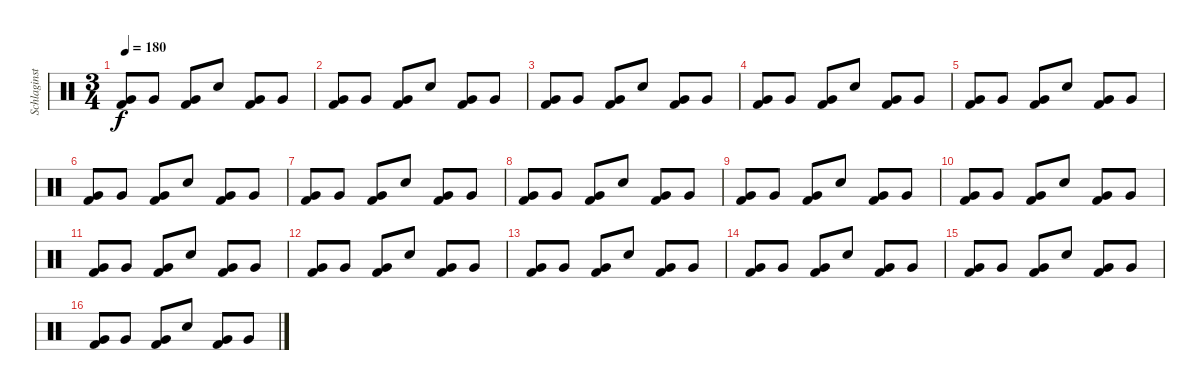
\track ("Schlaginstrumente - Auswahl" "Schlaginst") {instrument percussion}
\staff {score}
\articulation defaults
\ts (3 4)
\tempo 180
\clef neutral
\ks c
("Very Low Tom (hit)" "Kick (hit) 2").8{dy f} "Very Low Tom (hit)".8 ("Very Low Tom (hit)" "Kick (hit) 2").8 "Snare (hit) 2".8 ("Very Low Tom (hit)" "Kick (hit) 2").8 "Very Low Tom (hit)".8 |
("Very Low Tom (hit)" "Kick (hit) 2").8 "Very Low Tom (hit)".8 ("Very Low Tom (hit)" "Kick (hit) 2").8 "Snare (hit) 2".8 ("Very Low Tom (hit)" "Kick (hit) 2").8 "Very Low Tom (hit)".8 |
("Very Low Tom (hit)" "Kick (hit) 2").8 "Very Low Tom (hit)".8 ("Very Low Tom (hit)" "Kick (hit) 2").8 "Snare (hit) 2".8 ("Very Low Tom (hit)" "Kick (hit) 2").8 "Very Low Tom (hit)".8 |
("Very Low Tom (hit)" "Kick (hit) 2").8 "Very Low Tom (hit)".8 ("Very Low Tom (hit)" "Kick (hit) 2").8 "Snare (hit) 2".8 ("Very Low Tom (hit)" "Kick (hit) 2").8 "Very Low Tom (hit)".8 |
("Very Low Tom (hit)" "Kick (hit) 2").8 "Very Low Tom (hit)".8 ("Very Low Tom (hit)" "Kick (hit) 2").8 "Snare (hit) 2".8 ("Very Low Tom (hit)" "Kick (hit) 2").8 "Very Low Tom (hit)".8 |
("Very Low Tom (hit)" "Kick (hit) 2").8 "Very Low Tom (hit)".8 ("Very Low Tom (hit)" "Kick (hit) 2").8 "Snare (hit) 2".8 ("Very Low Tom (hit)" "Kick (hit) 2").8 "Very Low Tom (hit)".8 |
("Very Low Tom (hit)" "Kick (hit) 2").8 "Very Low Tom (hit)".8 ("Very Low Tom (hit)" "Kick (hit) 2").8 "Snare (hit) 2".8 ("Very Low Tom (hit)" "Kick (hit) 2").8 "Very Low Tom (hit)".8 |
("Very Low Tom (hit)" "Kick (hit) 2").8 "Very Low Tom (hit)".8 ("Very Low Tom (hit)" "Kick (hit) 2").8 "Snare (hit) 2".8 ("Very Low Tom (hit)" "Kick (hit) 2").8 "Very Low Tom (hit)".8 |
("Very Low Tom (hit)" "Kick (hit) 2").8 "Very Low Tom (hit)".8 ("Very Low Tom (hit)" "Kick (hit) 2").8 "Snare (hit) 2".8 ("Very Low Tom (hit)" "Kick (hit) 2").8 "Very Low Tom (hit)".8 |
("Very Low Tom (hit)" "Kick (hit) 2").8 "Very Low Tom (hit)".8 ("Very Low Tom (hit)" "Kick (hit) 2").8 "Snare (hit) 2".8 ("Very Low Tom (hit)" "Kick (hit) 2").8 "Very Low Tom (hit)".8 |
("Very Low Tom (hit)" "Kick (hit) 2").8 "Very Low Tom (hit)".8 ("Very Low Tom (hit)" "Kick (hit) 2").8 "Snare (hit) 2".8 ("Very Low Tom (hit)" "Kick (hit) 2").8 "Very Low Tom (hit)".8 |
("Very Low Tom (hit)" "Kick (hit) 2").8 "Very Low Tom (hit)".8 ("Very Low Tom (hit)" "Kick (hit) 2").8 "Snare (hit) 2".8 ("Very Low Tom (hit)" "Kick (hit) 2").8 "Very Low Tom (hit)".8 |
("Very Low Tom (hit)" "Kick (hit) 2").8 "Very Low Tom (hit)".8 ("Very Low Tom (hit)" "Kick (hit) 2").8 "Snare (hit) 2".8 ("Very Low Tom (hit)" "Kick (hit) 2").8 "Very Low Tom (hit)".8 |
("Very Low Tom (hit)" "Kick (hit) 2").8 "Very Low Tom (hit)".8 ("Very Low Tom (hit)" "Kick (hit) 2").8 "Snare (hit) 2".8 ("Very Low Tom (hit)" "Kick (hit) 2").8 "Very Low Tom (hit)".8 |
("Very Low Tom (hit)" "Kick (hit) 2").8 "Very Low Tom (hit)".8 ("Very Low Tom (hit)" "Kick (hit) 2").8 "Snare (hit) 2".8 ("Very Low Tom (hit)" "Kick (hit) 2").8 "Very Low Tom (hit)".8 |
("Very Low Tom (hit)" "Kick (hit) 2").8 "Very Low Tom (hit)".8 ("Very Low Tom (hit)" "Kick (hit) 2").8 "Snare (hit) 2".8 ("Very Low Tom (hit)" "Kick (hit) 2").8 "Very Low Tom (hit)".8
